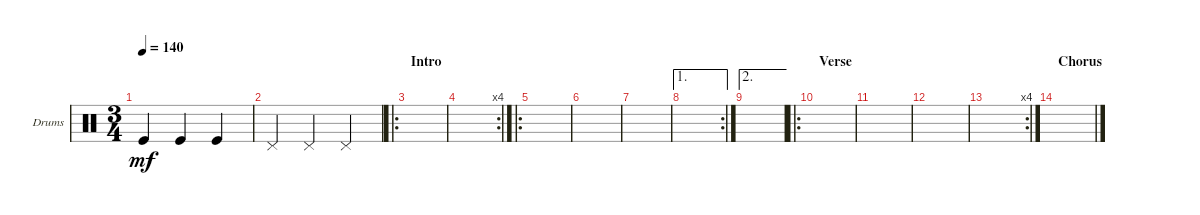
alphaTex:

\defaultSystemsLayout 4
\bracketExtendMode groupsimilarinstruments
\firstSystemTrackNameOrientation horizontal
\otherSystemsTrackNameOrientation horizontal
\track ("Drums" "Drums") {instrument percussion}
\staff {score}
\articulation defaults
\ts (3 4)
\tempo 140
\clef neutral
\scale
0.447368
\ks c "Kick (hit)".4{dy mf} "Kick (hit)".4 "Kick (hit)".4
|
\scale
0.25 "Pedal Hi-Hat (hit)".4 "Pedal Hi-Hat (hit)".4 "Pedal Hi-Hat (hit)".4 |
\ro
\section ("" "Intro")
\scale
0.302632 |
\rc 4
\scale
0.333333 |
\ro
\scale
0.365079 |
\scale
0.301587 |
\scale
0.322034 |
\ae 1
\rc 2
\scale
0.355932 |
\ae 2
\scale
0.322034 |
\ro
\section ("" "Verse")
\scale
0.377049 |
\scale
0.311475 |
\scale
0.311475 |
\rc 4
\scale
0.355932 |
\section ("" "Chorus")
\scale
0.322034 |
\scale
0.322034 |
\scale
0.333333
